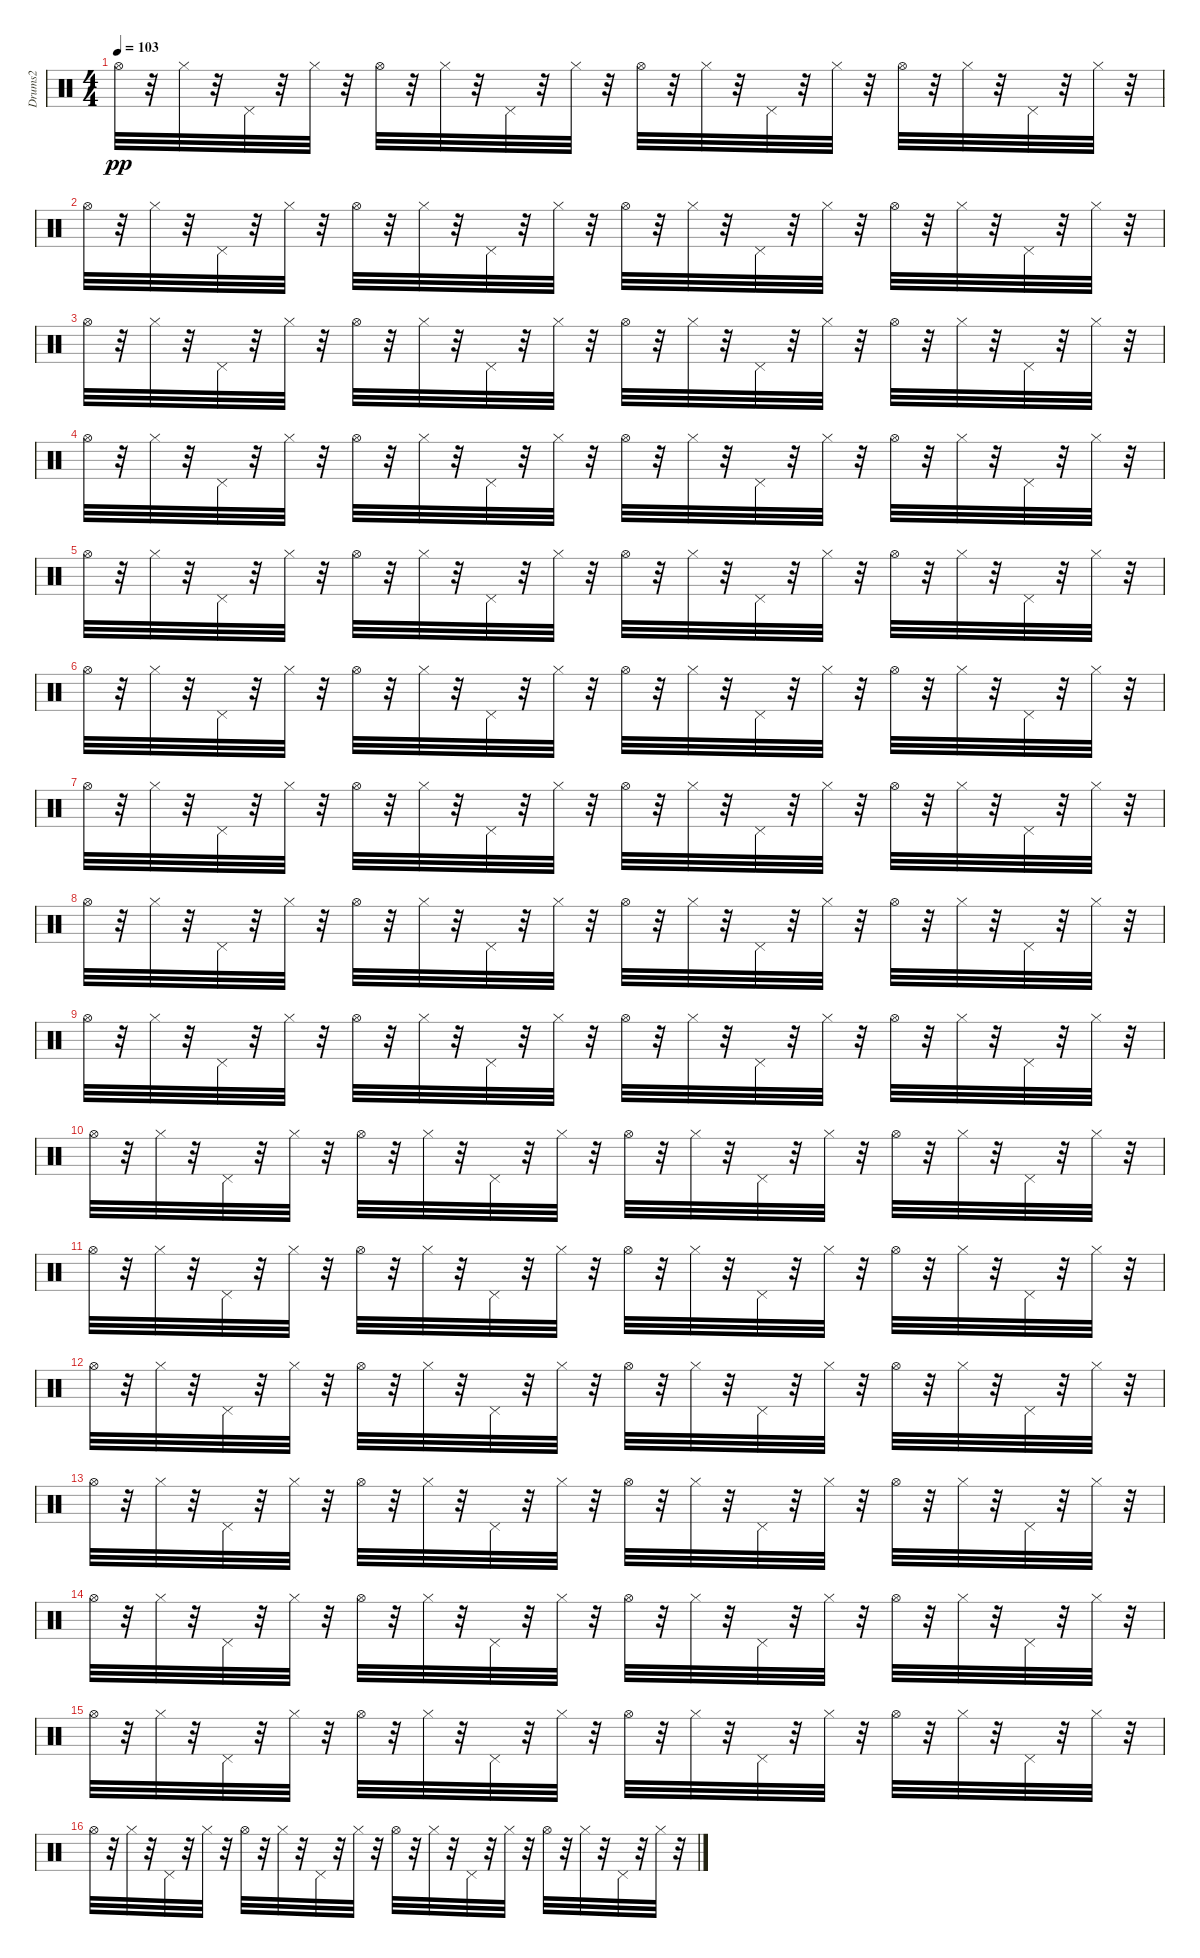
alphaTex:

\track ("Drums2" "Drums2") {instrument percussion}
\staff {score}
\articulation defaults
\ts (4 4)
\tempo 103
\clef neutral
\ks c "Hi-Hat (open)".32{dy pp}
r.32 "Hi-Hat (closed)".32 r.32 "Pedal Hi-Hat (hit)".32 r.32 "Hi-Hat (closed)".32 r.32 "Hi-Hat (open)".32 r.32 "Hi-Hat (closed)".32 r.32 "Pedal Hi-Hat (hit)".32 r.32 "Hi-Hat (closed)".32 r.32 "Hi-Hat (open)".32 r.32 "Hi-Hat (closed)".32 r.32 "Pedal Hi-Hat (hit)".32 r.32 "Hi-Hat (closed)".32 r.32 "Hi-Hat (open)".32 r.32 "Hi-Hat (closed)".32 r.32 "Pedal Hi-Hat (hit)".32 r.32 "Hi-Hat (closed)".32 r.32 |
"Hi-Hat (open)".32 r.32 "Hi-Hat (closed)".32 r.32 "Pedal Hi-Hat (hit)".32 r.32 "Hi-Hat (closed)".32 r.32 "Hi-Hat (open)".32 r.32 "Hi-Hat (closed)".32 r.32 "Pedal Hi-Hat (hit)".32 r.32 "Hi-Hat (closed)".32 r.32 "Hi-Hat (open)".32 r.32 "Hi-Hat (closed)".32 r.32 "Pedal Hi-Hat (hit)".32 r.32 "Hi-Hat (closed)".32 r.32 "Hi-Hat (open)".32 r.32 "Hi-Hat (closed)".32 r.32 "Pedal Hi-Hat (hit)".32 r.32 "Hi-Hat (closed)".32 r.32 |
"Hi-Hat (open)".32 r.32 "Hi-Hat (closed)".32 r.32 "Pedal Hi-Hat (hit)".32 r.32 "Hi-Hat (closed)".32 r.32 "Hi-Hat (open)".32 r.32 "Hi-Hat (closed)".32 r.32 "Pedal Hi-Hat (hit)".32 r.32 "Hi-Hat (closed)".32 r.32 "Hi-Hat (open)".32 r.32 "Hi-Hat (closed)".32 r.32 "Pedal Hi-Hat (hit)".32 r.32 "Hi-Hat (closed)".32 r.32 "Hi-Hat (open)".32 r.32 "Hi-Hat (closed)".32 r.32 "Pedal Hi-Hat (hit)".32 r.32 "Hi-Hat (closed)".32 r.32 |
"Hi-Hat (open)".32 r.32 "Hi-Hat (closed)".32 r.32 "Pedal Hi-Hat (hit)".32 r.32 "Hi-Hat (closed)".32 r.32 "Hi-Hat (open)".32 r.32 "Hi-Hat (closed)".32 r.32 "Pedal Hi-Hat (hit)".32 r.32 "Hi-Hat (closed)".32 r.32 "Hi-Hat (open)".32 r.32 "Hi-Hat (closed)".32 r.32 "Pedal Hi-Hat (hit)".32 r.32 "Hi-Hat (closed)".32 r.32 "Hi-Hat (open)".32 r.32 "Hi-Hat (closed)".32 r.32 "Pedal Hi-Hat (hit)".32 r.32 "Hi-Hat (closed)".32 r.32 |
"Hi-Hat (open)".32 r.32 "Hi-Hat (closed)".32 r.32 "Pedal Hi-Hat (hit)".32 r.32 "Hi-Hat (closed)".32 r.32 "Hi-Hat (open)".32 r.32 "Hi-Hat (closed)".32 r.32 "Pedal Hi-Hat (hit)".32 r.32 "Hi-Hat (closed)".32 r.32 "Hi-Hat (open)".32 r.32 "Hi-Hat (closed)".32 r.32 "Pedal Hi-Hat (hit)".32 r.32 "Hi-Hat (closed)".32 r.32 "Hi-Hat (open)".32 r.32 "Hi-Hat (closed)".32 r.32 "Pedal Hi-Hat (hit)".32 r.32 "Hi-Hat (closed)".32 r.32 |
"Hi-Hat (open)".32 r.32 "Hi-Hat (closed)".32 r.32 "Pedal Hi-Hat (hit)".32 r.32 "Hi-Hat (closed)".32 r.32 "Hi-Hat (open)".32 r.32 "Hi-Hat (closed)".32 r.32 "Pedal Hi-Hat (hit)".32 r.32 "Hi-Hat (closed)".32 r.32 "Hi-Hat (open)".32 r.32 "Hi-Hat (closed)".32 r.32 "Pedal Hi-Hat (hit)".32 r.32 "Hi-Hat (closed)".32 r.32 "Hi-Hat (open)".32 r.32 "Hi-Hat (closed)".32 r.32 "Pedal Hi-Hat (hit)".32 r.32 "Hi-Hat (closed)".32 r.32 |
"Hi-Hat (open)".32 r.32 "Hi-Hat (closed)".32 r.32 "Pedal Hi-Hat (hit)".32 r.32 "Hi-Hat (closed)".32 r.32 "Hi-Hat (open)".32 r.32 "Hi-Hat (closed)".32 r.32 "Pedal Hi-Hat (hit)".32 r.32 "Hi-Hat (closed)".32 r.32 "Hi-Hat (open)".32 r.32 "Hi-Hat (closed)".32 r.32 "Pedal Hi-Hat (hit)".32 r.32 "Hi-Hat (closed)".32 r.32 "Hi-Hat (open)".32 r.32 "Hi-Hat (closed)".32 r.32 "Pedal Hi-Hat (hit)".32 r.32 "Hi-Hat (closed)".32 r.32 |
"Hi-Hat (open)".32 r.32 "Hi-Hat (closed)".32 r.32 "Pedal Hi-Hat (hit)".32 r.32 "Hi-Hat (closed)".32 r.32 "Hi-Hat (open)".32 r.32 "Hi-Hat (closed)".32 r.32 "Pedal Hi-Hat (hit)".32 r.32 "Hi-Hat (closed)".32 r.32 "Hi-Hat (open)".32 r.32 "Hi-Hat (closed)".32 r.32 "Pedal Hi-Hat (hit)".32 r.32 "Hi-Hat (closed)".32 r.32 "Hi-Hat (open)".32 r.32 "Hi-Hat (closed)".32 r.32 "Pedal Hi-Hat (hit)".32 r.32 "Hi-Hat (closed)".32 r.32 |
"Hi-Hat (open)".32 r.32 "Hi-Hat (closed)".32 r.32 "Pedal Hi-Hat (hit)".32 r.32 "Hi-Hat (closed)".32 r.32 "Hi-Hat (open)".32 r.32 "Hi-Hat (closed)".32 r.32 "Pedal Hi-Hat (hit)".32 r.32 "Hi-Hat (closed)".32 r.32 "Hi-Hat (open)".32 r.32 "Hi-Hat (closed)".32 r.32 "Pedal Hi-Hat (hit)".32 r.32 "Hi-Hat (closed)".32 r.32 "Hi-Hat (open)".32 r.32 "Hi-Hat (closed)".32 r.32 "Pedal Hi-Hat (hit)".32 r.32 "Hi-Hat (closed)".32 r.32 |
"Hi-Hat (open)".32 r.32 "Hi-Hat (closed)".32 r.32 "Pedal Hi-Hat (hit)".32 r.32 "Hi-Hat (closed)".32 r.32 "Hi-Hat (open)".32 r.32 "Hi-Hat (closed)".32 r.32 "Pedal Hi-Hat (hit)".32 r.32 "Hi-Hat (closed)".32 r.32 "Hi-Hat (open)".32 r.32 "Hi-Hat (closed)".32 r.32 "Pedal Hi-Hat (hit)".32 r.32 "Hi-Hat (closed)".32 r.32 "Hi-Hat (open)".32 r.32 "Hi-Hat (closed)".32 r.32 "Pedal Hi-Hat (hit)".32 r.32 "Hi-Hat (closed)".32 r.32 |
"Hi-Hat (open)".32 r.32 "Hi-Hat (closed)".32 r.32 "Pedal Hi-Hat (hit)".32 r.32 "Hi-Hat (closed)".32 r.32 "Hi-Hat (open)".32 r.32 "Hi-Hat (closed)".32 r.32 "Pedal Hi-Hat (hit)".32 r.32 "Hi-Hat (closed)".32 r.32 "Hi-Hat (open)".32 r.32 "Hi-Hat (closed)".32 r.32 "Pedal Hi-Hat (hit)".32 r.32 "Hi-Hat (closed)".32 r.32 "Hi-Hat (open)".32 r.32 "Hi-Hat (closed)".32 r.32 "Pedal Hi-Hat (hit)".32 r.32 "Hi-Hat (closed)".32 r.32 |
"Hi-Hat (open)".32 r.32 "Hi-Hat (closed)".32 r.32 "Pedal Hi-Hat (hit)".32 r.32 "Hi-Hat (closed)".32 r.32 "Hi-Hat (open)".32 r.32 "Hi-Hat (closed)".32 r.32 "Pedal Hi-Hat (hit)".32 r.32 "Hi-Hat (closed)".32 r.32 "Hi-Hat (open)".32 r.32 "Hi-Hat (closed)".32 r.32 "Pedal Hi-Hat (hit)".32 r.32 "Hi-Hat (closed)".32 r.32 "Hi-Hat (open)".32 r.32 "Hi-Hat (closed)".32 r.32 "Pedal Hi-Hat (hit)".32 r.32 "Hi-Hat (closed)".32 r.32 |
"Hi-Hat (open)".32 r.32 "Hi-Hat (closed)".32 r.32 "Pedal Hi-Hat (hit)".32 r.32 "Hi-Hat (closed)".32 r.32 "Hi-Hat (open)".32 r.32 "Hi-Hat (closed)".32 r.32 "Pedal Hi-Hat (hit)".32 r.32 "Hi-Hat (closed)".32 r.32 "Hi-Hat (open)".32 r.32 "Hi-Hat (closed)".32 r.32 "Pedal Hi-Hat (hit)".32 r.32 "Hi-Hat (closed)".32 r.32 "Hi-Hat (open)".32 r.32 "Hi-Hat (closed)".32 r.32 "Pedal Hi-Hat (hit)".32 r.32 "Hi-Hat (closed)".32 r.32 |
"Hi-Hat (open)".32 r.32 "Hi-Hat (closed)".32 r.32 "Pedal Hi-Hat (hit)".32 r.32 "Hi-Hat (closed)".32 r.32 "Hi-Hat (open)".32 r.32 "Hi-Hat (closed)".32 r.32 "Pedal Hi-Hat (hit)".32 r.32 "Hi-Hat (closed)".32 r.32 "Hi-Hat (open)".32 r.32 "Hi-Hat (closed)".32 r.32 "Pedal Hi-Hat (hit)".32 r.32 "Hi-Hat (closed)".32 r.32 "Hi-Hat (open)".32 r.32 "Hi-Hat (closed)".32 r.32 "Pedal Hi-Hat (hit)".32 r.32 "Hi-Hat (closed)".32 r.32 |
"Hi-Hat (open)".32 r.32 "Hi-Hat (closed)".32 r.32 "Pedal Hi-Hat (hit)".32 r.32 "Hi-Hat (closed)".32 r.32 "Hi-Hat (open)".32 r.32 "Hi-Hat (closed)".32 r.32 "Pedal Hi-Hat (hit)".32 r.32 "Hi-Hat (closed)".32 r.32 "Hi-Hat (open)".32 r.32 "Hi-Hat (closed)".32 r.32 "Pedal Hi-Hat (hit)".32 r.32 "Hi-Hat (closed)".32 r.32 "Hi-Hat (open)".32 r.32 "Hi-Hat (closed)".32 r.32 "Pedal Hi-Hat (hit)".32 r.32 "Hi-Hat (closed)".32 r.32 |
"Hi-Hat (open)".32 r.32 "Hi-Hat (closed)".32 r.32 "Pedal Hi-Hat (hit)".32 r.32 "Hi-Hat (closed)".32 r.32 "Hi-Hat (open)".32 r.32 "Hi-Hat (closed)".32 r.32 "Pedal Hi-Hat (hit)".32 r.32 "Hi-Hat (closed)".32 r.32 "Hi-Hat (open)".32 r.32 "Hi-Hat (closed)".32 r.32 "Pedal Hi-Hat (hit)".32 r.32 "Hi-Hat (closed)".32 r.32 "Hi-Hat (open)".32 r.32 "Hi-Hat (closed)".32 r.32 "Pedal Hi-Hat (hit)".32 r.32 "Hi-Hat (closed)".32 r.32
